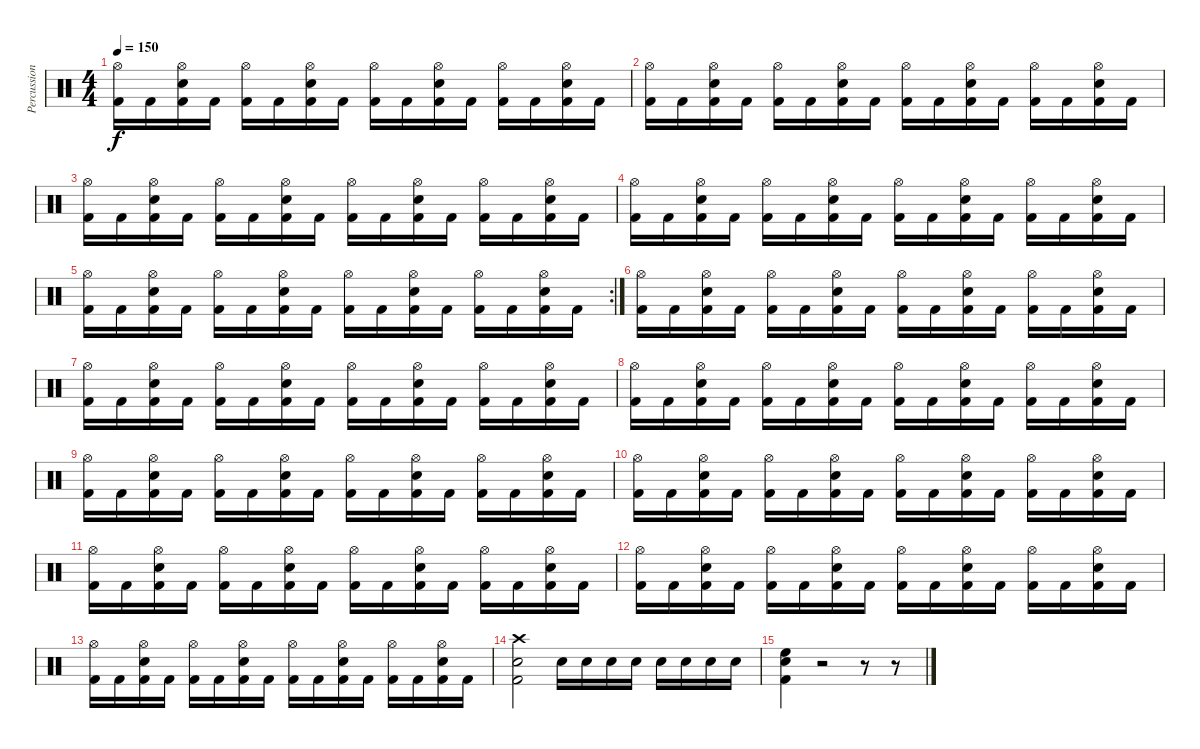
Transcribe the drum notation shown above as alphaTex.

\track ("Percussion" "Percussion") {instrument percussion}
\staff {score}
\articulation defaults
\ts (4 4)
\tempo 150
\clef neutral
\ks c
("Hi-Hat (open)" "Kick (hit) 2").16{dy f} "Kick (hit) 2".16 ("Hi-Hat (open)" "Snare (hit) 2" "Kick (hit) 2").16 "Kick (hit) 2".16 ("Hi-Hat (open)" "Kick (hit) 2").16 "Kick (hit) 2".16 ("Hi-Hat (open)" "Snare (hit) 2" "Kick (hit) 2").16 "Kick (hit) 2".16 ("Hi-Hat (open)" "Kick (hit) 2").16 "Kick (hit) 2".16 ("Hi-Hat (open)" "Snare (hit) 2" "Kick (hit) 2").16 "Kick (hit) 2".16 ("Hi-Hat (open)" "Kick (hit) 2").16 "Kick (hit) 2".16 ("Hi-Hat (open)" "Snare (hit) 2" "Kick (hit) 2").16 "Kick (hit) 2".16 |
("Hi-Hat (open)" "Kick (hit) 2").16 "Kick (hit) 2".16 ("Hi-Hat (open)" "Snare (hit) 2" "Kick (hit) 2").16 "Kick (hit) 2".16 ("Hi-Hat (open)" "Kick (hit) 2").16 "Kick (hit) 2".16 ("Hi-Hat (open)" "Snare (hit) 2" "Kick (hit) 2").16 "Kick (hit) 2".16 ("Hi-Hat (open)" "Kick (hit) 2").16 "Kick (hit) 2".16 ("Hi-Hat (open)" "Snare (hit) 2" "Kick (hit) 2").16 "Kick (hit) 2".16 ("Hi-Hat (open)" "Kick (hit) 2").16 "Kick (hit) 2".16 ("Hi-Hat (open)" "Snare (hit) 2" "Kick (hit) 2").16 "Kick (hit) 2".16 |
("Hi-Hat (open)" "Kick (hit) 2").16 "Kick (hit) 2".16 ("Hi-Hat (open)" "Snare (hit) 2" "Kick (hit) 2").16 "Kick (hit) 2".16 ("Hi-Hat (open)" "Kick (hit) 2").16 "Kick (hit) 2".16 ("Hi-Hat (open)" "Snare (hit) 2" "Kick (hit) 2").16 "Kick (hit) 2".16 ("Hi-Hat (open)" "Kick (hit) 2").16 "Kick (hit) 2".16 ("Hi-Hat (open)" "Snare (hit) 2" "Kick (hit) 2").16 "Kick (hit) 2".16 ("Hi-Hat (open)" "Kick (hit) 2").16 "Kick (hit) 2".16 ("Hi-Hat (open)" "Snare (hit) 2" "Kick (hit) 2").16 "Kick (hit) 2".16 |
("Hi-Hat (open)" "Kick (hit) 2").16 "Kick (hit) 2".16 ("Hi-Hat (open)" "Snare (hit) 2" "Kick (hit) 2").16 "Kick (hit) 2".16 ("Hi-Hat (open)" "Kick (hit) 2").16 "Kick (hit) 2".16 ("Hi-Hat (open)" "Snare (hit) 2" "Kick (hit) 2").16 "Kick (hit) 2".16 ("Hi-Hat (open)" "Kick (hit) 2").16 "Kick (hit) 2".16 ("Hi-Hat (open)" "Snare (hit) 2" "Kick (hit) 2").16 "Kick (hit) 2".16 ("Hi-Hat (open)" "Kick (hit) 2").16 "Kick (hit) 2".16 ("Hi-Hat (open)" "Snare (hit) 2" "Kick (hit) 2").16 "Kick (hit) 2".16 |
\rc 2
("Hi-Hat (open)" "Kick (hit) 2").16 "Kick (hit) 2".16 ("Hi-Hat (open)" "Snare (hit) 2" "Kick (hit) 2").16 "Kick (hit) 2".16 ("Hi-Hat (open)" "Kick (hit) 2").16 "Kick (hit) 2".16 ("Hi-Hat (open)" "Snare (hit) 2" "Kick (hit) 2").16 "Kick (hit) 2".16 ("Hi-Hat (open)" "Kick (hit) 2").16 "Kick (hit) 2".16 ("Hi-Hat (open)" "Snare (hit) 2" "Kick (hit) 2").16 "Kick (hit) 2".16 ("Hi-Hat (open)" "Kick (hit) 2").16 "Kick (hit) 2".16 ("Hi-Hat (open)" "Snare (hit) 2" "Kick (hit) 2").16 "Kick (hit) 2".16 |
("Hi-Hat (open)" "Kick (hit) 2").16 "Kick (hit) 2".16 ("Hi-Hat (open)" "Snare (hit) 2" "Kick (hit) 2").16 "Kick (hit) 2".16 ("Hi-Hat (open)" "Kick (hit) 2").16 "Kick (hit) 2".16 ("Hi-Hat (open)" "Snare (hit) 2" "Kick (hit) 2").16 "Kick (hit) 2".16 ("Hi-Hat (open)" "Kick (hit) 2").16 "Kick (hit) 2".16 ("Hi-Hat (open)" "Snare (hit) 2" "Kick (hit) 2").16 "Kick (hit) 2".16 ("Hi-Hat (open)" "Kick (hit) 2").16 "Kick (hit) 2".16 ("Hi-Hat (open)" "Snare (hit) 2" "Kick (hit) 2").16 "Kick (hit) 2".16 |
("Hi-Hat (open)" "Kick (hit) 2").16 "Kick (hit) 2".16 ("Hi-Hat (open)" "Snare (hit) 2" "Kick (hit) 2").16 "Kick (hit) 2".16 ("Hi-Hat (open)" "Kick (hit) 2").16 "Kick (hit) 2".16 ("Hi-Hat (open)" "Snare (hit) 2" "Kick (hit) 2").16 "Kick (hit) 2".16 ("Hi-Hat (open)" "Kick (hit) 2").16 "Kick (hit) 2".16 ("Hi-Hat (open)" "Snare (hit) 2" "Kick (hit) 2").16 "Kick (hit) 2".16 ("Hi-Hat (open)" "Kick (hit) 2").16 "Kick (hit) 2".16 ("Hi-Hat (open)" "Snare (hit) 2" "Kick (hit) 2").16 "Kick (hit) 2".16 |
("Hi-Hat (open)" "Kick (hit) 2").16 "Kick (hit) 2".16 ("Hi-Hat (open)" "Snare (hit) 2" "Kick (hit) 2").16 "Kick (hit) 2".16 ("Hi-Hat (open)" "Kick (hit) 2").16 "Kick (hit) 2".16 ("Hi-Hat (open)" "Snare (hit) 2" "Kick (hit) 2").16 "Kick (hit) 2".16 ("Hi-Hat (open)" "Kick (hit) 2").16 "Kick (hit) 2".16 ("Hi-Hat (open)" "Snare (hit) 2" "Kick (hit) 2").16 "Kick (hit) 2".16 ("Hi-Hat (open)" "Kick (hit) 2").16 "Kick (hit) 2".16 ("Hi-Hat (open)" "Snare (hit) 2" "Kick (hit) 2").16 "Kick (hit) 2".16 |
("Hi-Hat (open)" "Kick (hit) 2").16 "Kick (hit) 2".16 ("Hi-Hat (open)" "Snare (hit) 2" "Kick (hit) 2").16 "Kick (hit) 2".16 ("Hi-Hat (open)" "Kick (hit) 2").16 "Kick (hit) 2".16 ("Hi-Hat (open)" "Snare (hit) 2" "Kick (hit) 2").16 "Kick (hit) 2".16 ("Hi-Hat (open)" "Kick (hit) 2").16 "Kick (hit) 2".16 ("Hi-Hat (open)" "Snare (hit) 2" "Kick (hit) 2").16 "Kick (hit) 2".16 ("Hi-Hat (open)" "Kick (hit) 2").16 "Kick (hit) 2".16 ("Hi-Hat (open)" "Snare (hit) 2" "Kick (hit) 2").16 "Kick (hit) 2".16 |
("Hi-Hat (open)" "Kick (hit) 2").16 "Kick (hit) 2".16 ("Hi-Hat (open)" "Snare (hit) 2" "Kick (hit) 2").16 "Kick (hit) 2".16 ("Hi-Hat (open)" "Kick (hit) 2").16 "Kick (hit) 2".16 ("Hi-Hat (open)" "Snare (hit) 2" "Kick (hit) 2").16 "Kick (hit) 2".16 ("Hi-Hat (open)" "Kick (hit) 2").16 "Kick (hit) 2".16 ("Hi-Hat (open)" "Snare (hit) 2" "Kick (hit) 2").16 "Kick (hit) 2".16 ("Hi-Hat (open)" "Kick (hit) 2").16 "Kick (hit) 2".16 ("Hi-Hat (open)" "Snare (hit) 2" "Kick (hit) 2").16 "Kick (hit) 2".16 |
("Hi-Hat (open)" "Kick (hit) 2").16 "Kick (hit) 2".16 ("Hi-Hat (open)" "Snare (hit) 2" "Kick (hit) 2").16 "Kick (hit) 2".16 ("Hi-Hat (open)" "Kick (hit) 2").16 "Kick (hit) 2".16 ("Hi-Hat (open)" "Snare (hit) 2" "Kick (hit) 2").16 "Kick (hit) 2".16 ("Hi-Hat (open)" "Kick (hit) 2").16 "Kick (hit) 2".16 ("Hi-Hat (open)" "Snare (hit) 2" "Kick (hit) 2").16 "Kick (hit) 2".16 ("Hi-Hat (open)" "Kick (hit) 2").16 "Kick (hit) 2".16 ("Hi-Hat (open)" "Snare (hit) 2" "Kick (hit) 2").16 "Kick (hit) 2".16 |
("Hi-Hat (open)" "Kick (hit) 2").16 "Kick (hit) 2".16 ("Hi-Hat (open)" "Snare (hit) 2" "Kick (hit) 2").16 "Kick (hit) 2".16 ("Hi-Hat (open)" "Kick (hit) 2").16 "Kick (hit) 2".16 ("Hi-Hat (open)" "Snare (hit) 2" "Kick (hit) 2").16 "Kick (hit) 2".16 ("Hi-Hat (open)" "Kick (hit) 2").16 "Kick (hit) 2".16 ("Hi-Hat (open)" "Snare (hit) 2" "Kick (hit) 2").16 "Kick (hit) 2".16 ("Hi-Hat (open)" "Kick (hit) 2").16 "Kick (hit) 2".16 ("Hi-Hat (open)" "Snare (hit) 2" "Kick (hit) 2").16 "Kick (hit) 2".16 |
("Hi-Hat (open)" "Kick (hit) 2").16 "Kick (hit) 2".16 ("Hi-Hat (open)" "Snare (hit) 2" "Kick (hit) 2").16 "Kick (hit) 2".16 ("Hi-Hat (open)" "Kick (hit) 2").16 "Kick (hit) 2".16 ("Hi-Hat (open)" "Snare (hit) 2" "Kick (hit) 2").16 "Kick (hit) 2".16 ("Hi-Hat (open)" "Kick (hit) 2").16 "Kick (hit) 2".16 ("Hi-Hat (open)" "Snare (hit) 2" "Kick (hit) 2").16 "Kick (hit) 2".16 ("Hi-Hat (open)" "Kick (hit) 2").16 "Kick (hit) 2".16 ("Hi-Hat (open)" "Snare (hit) 2" "Kick (hit) 2").16 "Kick (hit) 2".16 |
("Crash high (hit)" "Snare (hit) 2" "Kick (hit) 2").2 "Snare (hit) 2".16 "Snare (hit) 2".16 "Snare (hit) 2".16 "Snare (hit) 2".16 "Snare (hit) 2".16 "Snare (hit) 2".16 "Snare (hit) 2".16 "Snare (hit) 2".16 |
("High Floor Tom (hit)" "Snare (hit) 2" "Kick (hit) 2").4 r.2 r.8 r.8
